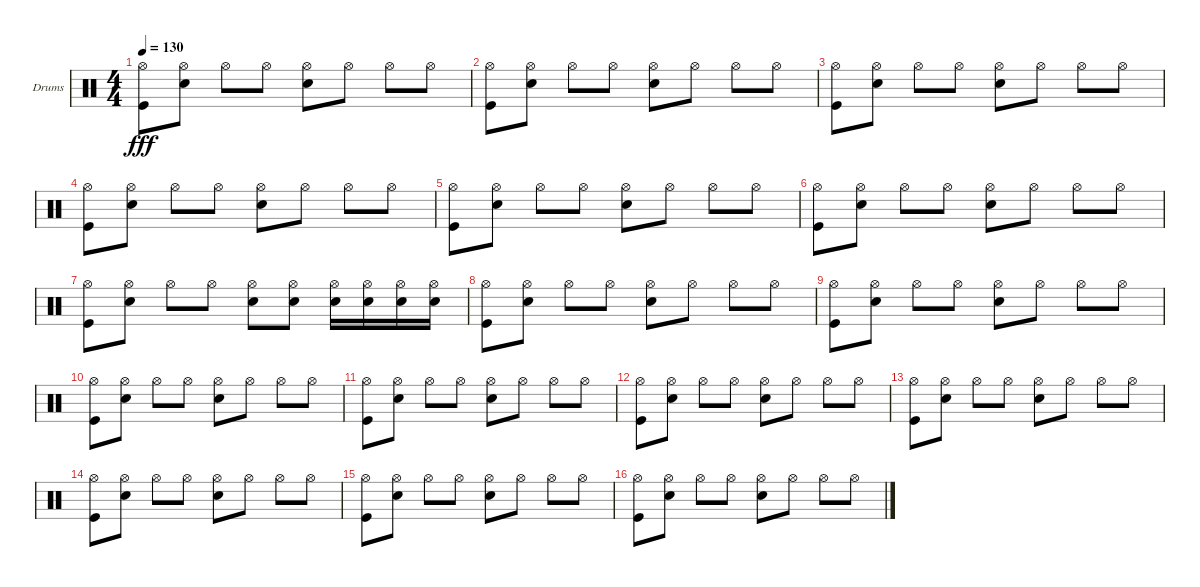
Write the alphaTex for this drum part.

\bracketExtendMode groupsimilarinstruments
\firstSystemTrackNameOrientation horizontal
\otherSystemsTrackNameOrientation horizontal
\track ("Drumkit" "Drums") {instrument percussion}
\staff {score}
\articulation defaults
\ts (4 4)
\tempo 130
\clef neutral
\ks c
("Hi-Hat (open)" "Kick (hit)").8{dy fff} ("Hi-Hat (open)" "Snare (hit) 2").8 "Hi-Hat (open)".8 "Hi-Hat (open)".8 ("Hi-Hat (open)" "Snare (hit) 2").8 "Hi-Hat (open)".8 "Hi-Hat (open)".8 "Hi-Hat (open)".8 |
("Hi-Hat (open)" "Kick (hit)").8 ("Hi-Hat (open)" "Snare (hit) 2").8 "Hi-Hat (open)".8 "Hi-Hat (open)".8 ("Hi-Hat (open)" "Snare (hit) 2").8 "Hi-Hat (open)".8 "Hi-Hat (open)".8 "Hi-Hat (open)".8 |
("Hi-Hat (open)" "Kick (hit)").8 ("Hi-Hat (open)" "Snare (hit) 2").8 "Hi-Hat (open)".8 "Hi-Hat (open)".8 ("Hi-Hat (open)" "Snare (hit) 2").8 "Hi-Hat (open)".8 "Hi-Hat (open)".8 "Hi-Hat (open)".8 |
("Hi-Hat (open)" "Kick (hit)").8 ("Hi-Hat (open)" "Snare (hit) 2").8 "Hi-Hat (open)".8 "Hi-Hat (open)".8 ("Hi-Hat (open)" "Snare (hit) 2").8 "Hi-Hat (open)".8 "Hi-Hat (open)".8 "Hi-Hat (open)".8 |
("Hi-Hat (open)" "Kick (hit)").8 ("Hi-Hat (open)" "Snare (hit) 2").8 "Hi-Hat (open)".8 "Hi-Hat (open)".8 ("Hi-Hat (open)" "Snare (hit) 2").8 "Hi-Hat (open)".8 "Hi-Hat (open)".8 "Hi-Hat (open)".8 |
("Hi-Hat (open)" "Kick (hit)").8 ("Hi-Hat (open)" "Snare (hit) 2").8 "Hi-Hat (open)".8 "Hi-Hat (open)".8 ("Hi-Hat (open)" "Snare (hit) 2").8 "Hi-Hat (open)".8 "Hi-Hat (open)".8 "Hi-Hat (open)".8 |
("Hi-Hat (open)" "Kick (hit)").8 ("Hi-Hat (open)" "Snare (hit) 2").8 "Hi-Hat (open)".8 "Hi-Hat (open)".8 ("Hi-Hat (open)" "Snare (hit) 2").8 ("Hi-Hat (open)" "Snare (hit) 2").8 ("Hi-Hat (open)" "Snare (hit) 2").16 ("Hi-Hat (open)" "Snare (hit) 2").16 ("Hi-Hat (open)" "Snare (hit) 2").16 ("Hi-Hat (open)" "Snare (hit) 2").16 |
("Hi-Hat (open)" "Kick (hit)").8 ("Hi-Hat (open)" "Snare (hit) 2").8 "Hi-Hat (open)".8 "Hi-Hat (open)".8 ("Hi-Hat (open)" "Snare (hit) 2").8 "Hi-Hat (open)".8 "Hi-Hat (open)".8 "Hi-Hat (open)".8 |
("Hi-Hat (open)" "Kick (hit)").8 ("Hi-Hat (open)" "Snare (hit) 2").8 "Hi-Hat (open)".8 "Hi-Hat (open)".8 ("Hi-Hat (open)" "Snare (hit) 2").8 "Hi-Hat (open)".8 "Hi-Hat (open)".8 "Hi-Hat (open)".8 |
("Hi-Hat (open)" "Kick (hit)").8 ("Hi-Hat (open)" "Snare (hit) 2").8 "Hi-Hat (open)".8 "Hi-Hat (open)".8 ("Hi-Hat (open)" "Snare (hit) 2").8 "Hi-Hat (open)".8 "Hi-Hat (open)".8 "Hi-Hat (open)".8 |
("Hi-Hat (open)" "Kick (hit)").8 ("Hi-Hat (open)" "Snare (hit) 2").8 "Hi-Hat (open)".8 "Hi-Hat (open)".8 ("Hi-Hat (open)" "Snare (hit) 2").8 "Hi-Hat (open)".8 "Hi-Hat (open)".8 "Hi-Hat (open)".8 |
("Hi-Hat (open)" "Kick (hit)").8 ("Hi-Hat (open)" "Snare (hit) 2").8 "Hi-Hat (open)".8 "Hi-Hat (open)".8 ("Hi-Hat (open)" "Snare (hit) 2").8 "Hi-Hat (open)".8 "Hi-Hat (open)".8 "Hi-Hat (open)".8 |
("Hi-Hat (open)" "Kick (hit)").8 ("Hi-Hat (open)" "Snare (hit) 2").8 "Hi-Hat (open)".8 "Hi-Hat (open)".8 ("Hi-Hat (open)" "Snare (hit) 2").8 "Hi-Hat (open)".8 "Hi-Hat (open)".8 "Hi-Hat (open)".8 |
("Hi-Hat (open)" "Kick (hit)").8 ("Hi-Hat (open)" "Snare (hit) 2").8 "Hi-Hat (open)".8 "Hi-Hat (open)".8 ("Hi-Hat (open)" "Snare (hit) 2").8 "Hi-Hat (open)".8 "Hi-Hat (open)".8 "Hi-Hat (open)".8 |
("Hi-Hat (open)" "Kick (hit)").8 ("Hi-Hat (open)" "Snare (hit) 2").8 "Hi-Hat (open)".8 "Hi-Hat (open)".8 ("Hi-Hat (open)" "Snare (hit) 2").8 "Hi-Hat (open)".8 "Hi-Hat (open)".8 "Hi-Hat (open)".8 |
("Hi-Hat (open)" "Kick (hit)").8 ("Hi-Hat (open)" "Snare (hit) 2").8 "Hi-Hat (open)".8 "Hi-Hat (open)".8 ("Hi-Hat (open)" "Snare (hit) 2").8 "Hi-Hat (open)".8 "Hi-Hat (open)".8 "Hi-Hat (open)".8
